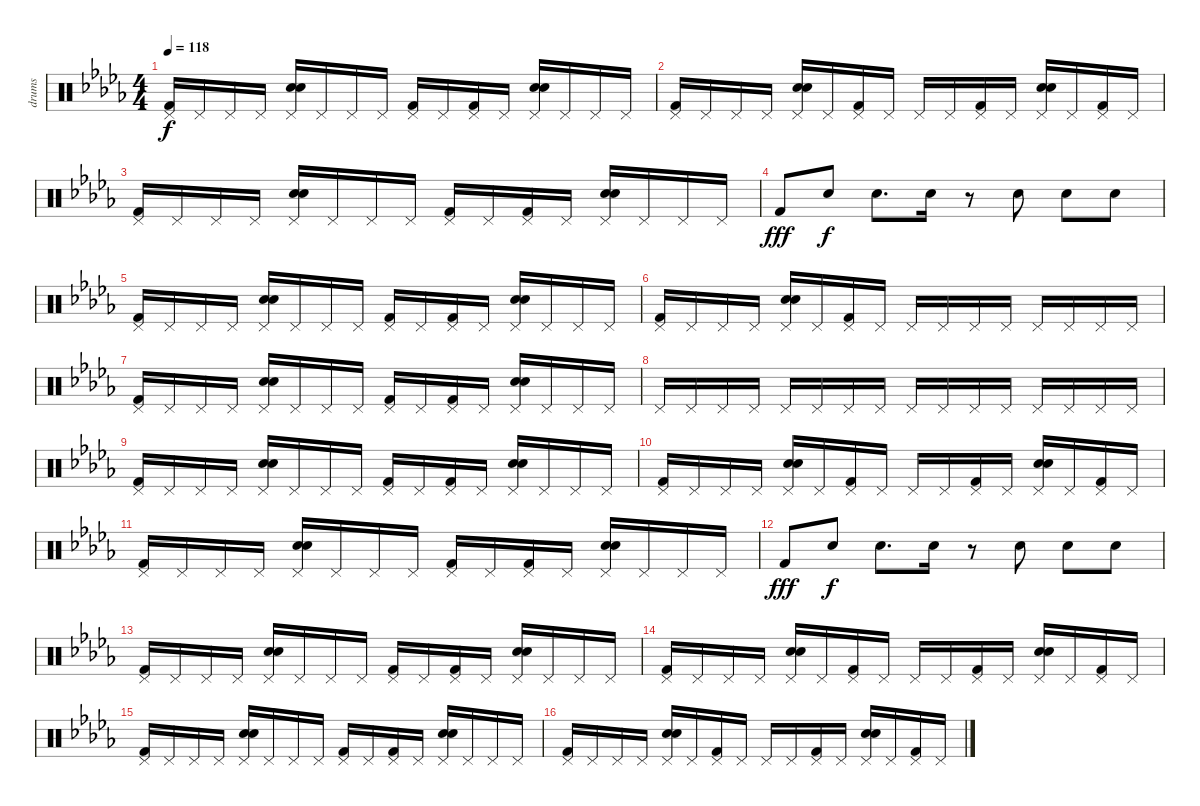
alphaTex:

\track ("drums" "drums") {instrument percussion}
\staff {score}
\articulation defaults
\ts (4 4)
\tempo 118
\clef neutral
\ks db
("Pedal Hi-Hat (hit)" "Kick (hit) 2").16{dy f} "Pedal Hi-Hat (hit)".16 "Pedal Hi-Hat (hit)".16 "Pedal Hi-Hat (hit)".16 ("Pedal Hi-Hat (hit)" "Hand Clap (hit)" "Snare (hit) 2").16 "Pedal Hi-Hat (hit)".16 "Pedal Hi-Hat (hit)".16 "Pedal Hi-Hat (hit)".16 ("Pedal Hi-Hat (hit)" "Kick (hit) 2").16 "Pedal Hi-Hat (hit)".16 ("Pedal Hi-Hat (hit)" "Kick (hit) 2").16 "Pedal Hi-Hat (hit)".16 ("Pedal Hi-Hat (hit)" "Hand Clap (hit)" "Snare (hit) 2").16 "Pedal Hi-Hat (hit)".16 "Pedal Hi-Hat (hit)".16 "Pedal Hi-Hat (hit)".16 |
("Pedal Hi-Hat (hit)" "Kick (hit) 2").16 "Pedal Hi-Hat (hit)".16 "Pedal Hi-Hat (hit)".16 "Pedal Hi-Hat (hit)".16 ("Pedal Hi-Hat (hit)" "Hand Clap (hit)" "Snare (hit) 2").16 "Pedal Hi-Hat (hit)".16 ("Pedal Hi-Hat (hit)" "Kick (hit) 2").16 "Pedal Hi-Hat (hit)".16 "Pedal Hi-Hat (hit)".16 "Pedal Hi-Hat (hit)".16 ("Pedal Hi-Hat (hit)" "Kick (hit) 2").16 "Pedal Hi-Hat (hit)".16 ("Pedal Hi-Hat (hit)" "Hand Clap (hit)" "Snare (hit) 2").16 "Pedal Hi-Hat (hit)".16 ("Pedal Hi-Hat (hit)" "Kick (hit) 2").16 "Pedal Hi-Hat (hit)".16 |
("Pedal Hi-Hat (hit)" "Kick (hit) 2").16 "Pedal Hi-Hat (hit)".16 "Pedal Hi-Hat (hit)".16 "Pedal Hi-Hat (hit)".16 ("Pedal Hi-Hat (hit)" "Hand Clap (hit)" "Snare (hit) 2").16 "Pedal Hi-Hat (hit)".16 "Pedal Hi-Hat (hit)".16 "Pedal Hi-Hat (hit)".16 ("Pedal Hi-Hat (hit)" "Kick (hit) 2").16 "Pedal Hi-Hat (hit)".16 ("Pedal Hi-Hat (hit)" "Kick (hit) 2").16 "Pedal Hi-Hat (hit)".16 ("Pedal Hi-Hat (hit)" "Hand Clap (hit)" "Snare (hit) 2").16 "Pedal Hi-Hat (hit)".16 "Pedal Hi-Hat (hit)".16 "Pedal Hi-Hat (hit)".16 |
"Kick (hit) 2".8{dy fff} "Snare (hit) 2".8{dy f} "Snare (hit) 2".8{d} "Snare (hit) 2".16 r.8 "Snare (hit) 2".8 "Snare (hit) 2".8 "Snare (hit) 2".8 |
("Pedal Hi-Hat (hit)" "Kick (hit) 2").16 "Pedal Hi-Hat (hit)".16 "Pedal Hi-Hat (hit)".16 "Pedal Hi-Hat (hit)".16 ("Pedal Hi-Hat (hit)" "Hand Clap (hit)" "Snare (hit) 2").16 "Pedal Hi-Hat (hit)".16 "Pedal Hi-Hat (hit)".16 "Pedal Hi-Hat (hit)".16 ("Pedal Hi-Hat (hit)" "Kick (hit) 2").16 "Pedal Hi-Hat (hit)".16 ("Pedal Hi-Hat (hit)" "Kick (hit) 2").16 "Pedal Hi-Hat (hit)".16 ("Pedal Hi-Hat (hit)" "Hand Clap (hit)" "Snare (hit) 2").16 "Pedal Hi-Hat (hit)".16 "Pedal Hi-Hat (hit)".16 "Pedal Hi-Hat (hit)".16 |
("Pedal Hi-Hat (hit)" "Kick (hit) 2").16 "Pedal Hi-Hat (hit)".16 "Pedal Hi-Hat (hit)".16 "Pedal Hi-Hat (hit)".16 ("Pedal Hi-Hat (hit)" "Hand Clap (hit)" "Snare (hit) 2").16 "Pedal Hi-Hat (hit)".16 ("Pedal Hi-Hat (hit)" "Kick (hit) 2").16 "Pedal Hi-Hat (hit)".16 "Pedal Hi-Hat (hit)".16 "Pedal Hi-Hat (hit)".16 "Pedal Hi-Hat (hit)".16 "Pedal Hi-Hat (hit)".16 "Pedal Hi-Hat (hit)".16 "Pedal Hi-Hat (hit)".16 "Pedal Hi-Hat (hit)".16 "Pedal Hi-Hat (hit)".16 |
("Pedal Hi-Hat (hit)" "Kick (hit) 2").16 "Pedal Hi-Hat (hit)".16 "Pedal Hi-Hat (hit)".16 "Pedal Hi-Hat (hit)".16 ("Pedal Hi-Hat (hit)" "Hand Clap (hit)" "Snare (hit) 2").16 "Pedal Hi-Hat (hit)".16 "Pedal Hi-Hat (hit)".16 "Pedal Hi-Hat (hit)".16 ("Pedal Hi-Hat (hit)" "Kick (hit) 2").16 "Pedal Hi-Hat (hit)".16 ("Pedal Hi-Hat (hit)" "Kick (hit) 2").16 "Pedal Hi-Hat (hit)".16 ("Pedal Hi-Hat (hit)" "Hand Clap (hit)" "Snare (hit) 2").16 "Pedal Hi-Hat (hit)".16 "Pedal Hi-Hat (hit)".16 "Pedal Hi-Hat (hit)".16 |
"Pedal Hi-Hat (hit)".16 "Pedal Hi-Hat (hit)".16 "Pedal Hi-Hat (hit)".16 "Pedal Hi-Hat (hit)".16 "Pedal Hi-Hat (hit)".16 "Pedal Hi-Hat (hit)".16 "Pedal Hi-Hat (hit)".16 "Pedal Hi-Hat (hit)".16 "Pedal Hi-Hat (hit)".16 "Pedal Hi-Hat (hit)".16 "Pedal Hi-Hat (hit)".16 "Pedal Hi-Hat (hit)".16 "Pedal Hi-Hat (hit)".16 "Pedal Hi-Hat (hit)".16 "Pedal Hi-Hat (hit)".16 "Pedal Hi-Hat (hit)".16 |
("Pedal Hi-Hat (hit)" "Kick (hit) 2").16 "Pedal Hi-Hat (hit)".16 "Pedal Hi-Hat (hit)".16 "Pedal Hi-Hat (hit)".16 ("Pedal Hi-Hat (hit)" "Hand Clap (hit)" "Snare (hit) 2").16 "Pedal Hi-Hat (hit)".16 "Pedal Hi-Hat (hit)".16 "Pedal Hi-Hat (hit)".16 ("Pedal Hi-Hat (hit)" "Kick (hit) 2").16 "Pedal Hi-Hat (hit)".16 ("Pedal Hi-Hat (hit)" "Kick (hit) 2").16 "Pedal Hi-Hat (hit)".16 ("Pedal Hi-Hat (hit)" "Hand Clap (hit)" "Snare (hit) 2").16 "Pedal Hi-Hat (hit)".16 "Pedal Hi-Hat (hit)".16 "Pedal Hi-Hat (hit)".16 |
("Pedal Hi-Hat (hit)" "Kick (hit) 2").16 "Pedal Hi-Hat (hit)".16 "Pedal Hi-Hat (hit)".16 "Pedal Hi-Hat (hit)".16 ("Pedal Hi-Hat (hit)" "Hand Clap (hit)" "Snare (hit) 2").16 "Pedal Hi-Hat (hit)".16 ("Pedal Hi-Hat (hit)" "Kick (hit) 2").16 "Pedal Hi-Hat (hit)".16 "Pedal Hi-Hat (hit)".16 "Pedal Hi-Hat (hit)".16 ("Pedal Hi-Hat (hit)" "Kick (hit) 2").16 "Pedal Hi-Hat (hit)".16 ("Pedal Hi-Hat (hit)" "Hand Clap (hit)" "Snare (hit) 2").16 "Pedal Hi-Hat (hit)".16 ("Pedal Hi-Hat (hit)" "Kick (hit) 2").16 "Pedal Hi-Hat (hit)".16 |
("Pedal Hi-Hat (hit)" "Kick (hit) 2").16 "Pedal Hi-Hat (hit)".16 "Pedal Hi-Hat (hit)".16 "Pedal Hi-Hat (hit)".16 ("Pedal Hi-Hat (hit)" "Hand Clap (hit)" "Snare (hit) 2").16 "Pedal Hi-Hat (hit)".16 "Pedal Hi-Hat (hit)".16 "Pedal Hi-Hat (hit)".16 ("Pedal Hi-Hat (hit)" "Kick (hit) 2").16 "Pedal Hi-Hat (hit)".16 ("Pedal Hi-Hat (hit)" "Kick (hit) 2").16 "Pedal Hi-Hat (hit)".16 ("Pedal Hi-Hat (hit)" "Hand Clap (hit)" "Snare (hit) 2").16 "Pedal Hi-Hat (hit)".16 "Pedal Hi-Hat (hit)".16 "Pedal Hi-Hat (hit)".16 |
"Kick (hit) 2".8{dy fff} "Snare (hit) 2".8{dy f} "Snare (hit) 2".8{d} "Snare (hit) 2".16 r.8 "Snare (hit) 2".8 "Snare (hit) 2".8 "Snare (hit) 2".8 |
("Pedal Hi-Hat (hit)" "Kick (hit) 2").16 "Pedal Hi-Hat (hit)".16 "Pedal Hi-Hat (hit)".16 "Pedal Hi-Hat (hit)".16 ("Pedal Hi-Hat (hit)" "Hand Clap (hit)" "Snare (hit) 2").16 "Pedal Hi-Hat (hit)".16 "Pedal Hi-Hat (hit)".16 "Pedal Hi-Hat (hit)".16 ("Pedal Hi-Hat (hit)" "Kick (hit) 2").16 "Pedal Hi-Hat (hit)".16 ("Pedal Hi-Hat (hit)" "Kick (hit) 2").16 "Pedal Hi-Hat (hit)".16 ("Pedal Hi-Hat (hit)" "Hand Clap (hit)" "Snare (hit) 2").16 "Pedal Hi-Hat (hit)".16 "Pedal Hi-Hat (hit)".16 "Pedal Hi-Hat (hit)".16 |
("Pedal Hi-Hat (hit)" "Kick (hit) 2").16 "Pedal Hi-Hat (hit)".16 "Pedal Hi-Hat (hit)".16 "Pedal Hi-Hat (hit)".16 ("Pedal Hi-Hat (hit)" "Hand Clap (hit)" "Snare (hit) 2").16 "Pedal Hi-Hat (hit)".16 ("Pedal Hi-Hat (hit)" "Kick (hit) 2").16 "Pedal Hi-Hat (hit)".16 "Pedal Hi-Hat (hit)".16 "Pedal Hi-Hat (hit)".16 ("Pedal Hi-Hat (hit)" "Kick (hit) 2").16 "Pedal Hi-Hat (hit)".16 ("Pedal Hi-Hat (hit)" "Hand Clap (hit)" "Snare (hit) 2").16 "Pedal Hi-Hat (hit)".16 ("Pedal Hi-Hat (hit)" "Kick (hit) 2").16 "Pedal Hi-Hat (hit)".16 |
("Pedal Hi-Hat (hit)" "Kick (hit) 2").16 "Pedal Hi-Hat (hit)".16 "Pedal Hi-Hat (hit)".16 "Pedal Hi-Hat (hit)".16 ("Pedal Hi-Hat (hit)" "Hand Clap (hit)" "Snare (hit) 2").16 "Pedal Hi-Hat (hit)".16 "Pedal Hi-Hat (hit)".16 "Pedal Hi-Hat (hit)".16 ("Pedal Hi-Hat (hit)" "Kick (hit) 2").16 "Pedal Hi-Hat (hit)".16 ("Pedal Hi-Hat (hit)" "Kick (hit) 2").16 "Pedal Hi-Hat (hit)".16 ("Pedal Hi-Hat (hit)" "Hand Clap (hit)" "Snare (hit) 2").16 "Pedal Hi-Hat (hit)".16 "Pedal Hi-Hat (hit)".16 "Pedal Hi-Hat (hit)".16 |
("Pedal Hi-Hat (hit)" "Kick (hit) 2").16 "Pedal Hi-Hat (hit)".16 "Pedal Hi-Hat (hit)".16 "Pedal Hi-Hat (hit)".16 ("Pedal Hi-Hat (hit)" "Hand Clap (hit)" "Snare (hit) 2").16 "Pedal Hi-Hat (hit)".16 ("Pedal Hi-Hat (hit)" "Kick (hit) 2").16 "Pedal Hi-Hat (hit)".16 "Pedal Hi-Hat (hit)".16 "Pedal Hi-Hat (hit)".16 ("Pedal Hi-Hat (hit)" "Kick (hit) 2").16 "Pedal Hi-Hat (hit)".16 ("Pedal Hi-Hat (hit)" "Hand Clap (hit)" "Snare (hit) 2").16 "Pedal Hi-Hat (hit)".16 ("Pedal Hi-Hat (hit)" "Kick (hit) 2").16 "Pedal Hi-Hat (hit)".16
